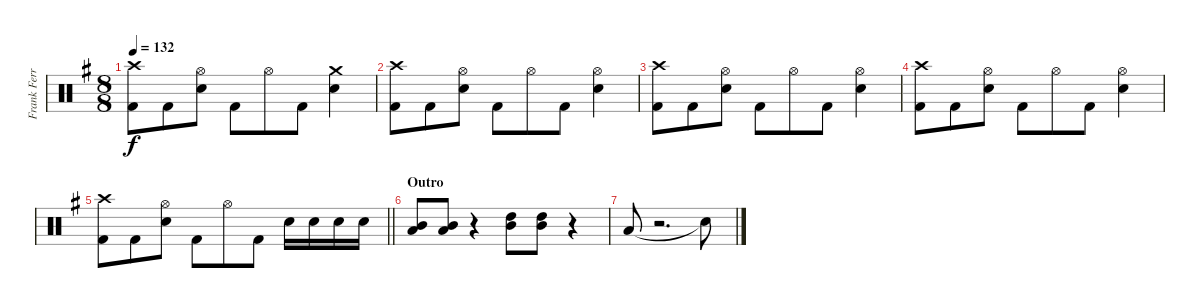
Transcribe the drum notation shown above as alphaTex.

\track ("Frank Ferrer" "Frank Ferr") {instrument percussion}
\staff {score}
\articulation defaults
\ts (8 8)
\tempo 132
\clef neutral
\ks g
("Crash high (hit)" "Kick (hit) 2").8{dy f} "Kick (hit) 2".8 ("Hi-Hat (open)" "Electric Snare (hit)").8 "Kick (hit) 2".8 "Hi-Hat (open)".8 "Kick (hit) 2".8 ("Crash medium (hit)" "Electric Snare (hit)").4 |
("Crash high (hit)" "Kick (hit) 2").8 "Kick (hit) 2".8 ("Hi-Hat (open)" "Electric Snare (hit)").8 "Kick (hit) 2".8 "Hi-Hat (open)".8 "Kick (hit) 2".8 ("Hi-Hat (open)" "Electric Snare (hit)").4 |
("Crash high (hit)" "Kick (hit) 2").8 "Kick (hit) 2".8 ("Hi-Hat (open)" "Electric Snare (hit)").8 "Kick (hit) 2".8 "Hi-Hat (open)".8 "Kick (hit) 2".8 ("Hi-Hat (open)" "Electric Snare (hit)").4 |
("Crash high (hit)" "Kick (hit) 2").8 "Kick (hit) 2".8 ("Hi-Hat (open)" "Electric Snare (hit)").8 "Kick (hit) 2".8 "Hi-Hat (open)".8 "Kick (hit) 2".8 ("Hi-Hat (open)" "Electric Snare (hit)").4 |
\barLineRight lightlight
("Crash high (hit)" "Kick (hit) 2").8 "Kick (hit) 2".8 ("Hi-Hat (open)" "Electric Snare (hit)").8 "Kick (hit) 2".8 "Hi-Hat (open)".8 "Kick (hit) 2".8 "Electric Snare (hit)".16 "Electric Snare (hit)".16 "Electric Snare (hit)".16 "Electric Snare (hit)".16 |
\section ("" "Outro")
("Low Tom (hit)" "Mid Tom (hit)").8 ("Low Tom (hit)" "Mid Tom (hit)").8 r.4 ("High Tom (hit)" "Mid Tom (hit)").8 ("High Tom (hit)" "Mid Tom (hit)").8 r.4 |
"Low Tom (hit)".8 r.2{d} "Snare (hit)"{t}.8
